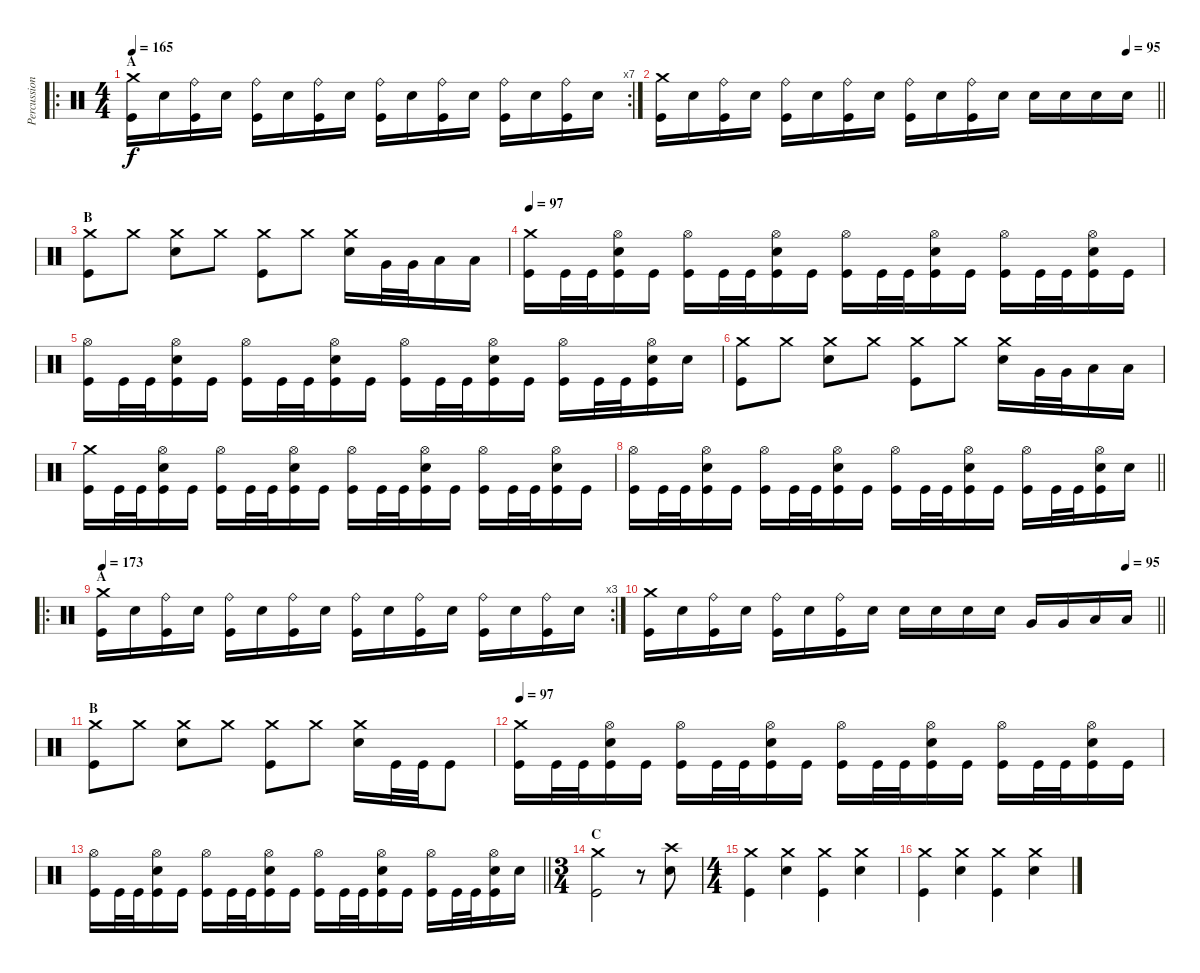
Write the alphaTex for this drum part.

\track ("Percussion" "Percussion") {instrument percussion}
\staff {score}
\articulation defaults
\ro
\rc 7
\ts (4 4)
\section ("" "A")
\tempo 165
\clef neutral
\ks c
("Kick (hit)" "Crash medium (hit)").16{dy f} "Snare (hit) 2".16 ("Kick (hit)" "Ride (bell)").16 "Snare (hit) 2".16 ("Kick (hit)" "Ride (bell)").16 "Snare (hit) 2".16 ("Kick (hit)" "Ride (bell)").16 "Snare (hit) 2".16 ("Kick (hit)" "Ride (bell)").16 "Snare (hit) 2".16 ("Kick (hit)" "Ride (bell)").16 "Snare (hit) 2".16 ("Kick (hit)" "Ride (bell)").16 "Snare (hit) 2".16 ("Kick (hit)" "Ride (bell)").16 "Snare (hit) 2".16 |
\tempo (95 0.9375)
\barLineRight lightlight
("Kick (hit)" "Crash medium (hit)").16 "Snare (hit) 2".16 ("Kick (hit)" "Ride (bell)").16 "Snare (hit) 2".16 ("Kick (hit)" "Ride (bell)").16 "Snare (hit) 2".16 ("Kick (hit)" "Ride (bell)").16 "Snare (hit) 2".16 ("Kick (hit)" "Ride (bell)").16 "Snare (hit) 2".16 ("Kick (hit)" "Ride (bell)").16 "Snare (hit) 2".16 "Snare (hit) 2".16 "Snare (hit) 2".16 "Snare (hit) 2".16 "Snare (hit) 2".16 |
\section ("" "B")
("Kick (hit)" "Crash medium (hit)").8 "Crash medium (hit)".8 ("Snare (hit) 2" "Crash medium (hit)").8 "Crash medium (hit)".8 ("Kick (hit)" "Crash medium (hit)").8 "Crash medium (hit)".8 ("Snare (hit) 2" "Crash medium (hit)").16 "Very Low Tom (hit)".32 "Very Low Tom (hit)".32 "Low Floor Tom (hit)".16 "Low Floor Tom (hit)".16 |
\tempo 97
("Kick (hit)" "Crash medium (hit)").16 "Kick (hit)".32 "Kick (hit)".32 ("Kick (hit)" "Snare (hit) 2" "Hi-Hat (open)").16 "Kick (hit)".16 ("Kick (hit)" "Hi-Hat (open)").16 "Kick (hit)".32 "Kick (hit)".32 ("Kick (hit)" "Snare (hit) 2" "Hi-Hat (open)").16 "Kick (hit)".16 ("Kick (hit)" "Hi-Hat (open)").16 "Kick (hit)".32 "Kick (hit)".32 ("Kick (hit)" "Snare (hit) 2" "Hi-Hat (open)").16 "Kick (hit)".16 ("Kick (hit)" "Hi-Hat (open)").16 "Kick (hit)".32 "Kick (hit)".32 ("Kick (hit)" "Snare (hit) 2" "Hi-Hat (open)").16 "Kick (hit)".16 |
("Kick (hit)" "Hi-Hat (open)").16 "Kick (hit)".32 "Kick (hit)".32 ("Kick (hit)" "Snare (hit) 2" "Hi-Hat (open)").16 "Kick (hit)".16 ("Kick (hit)" "Hi-Hat (open)").16 "Kick (hit)".32 "Kick (hit)".32 ("Kick (hit)" "Snare (hit) 2" "Hi-Hat (open)").16 "Kick (hit)".16 ("Kick (hit)" "Hi-Hat (open)").16 "Kick (hit)".32 "Kick (hit)".32 ("Kick (hit)" "Snare (hit) 2" "Hi-Hat (open)").16 "Kick (hit)".16 ("Kick (hit)" "Hi-Hat (open)").16 "Kick (hit)".32 "Kick (hit)".32 ("Kick (hit)" "Snare (hit) 2" "Hi-Hat (open)").16 "Snare (hit) 2".16 |
("Kick (hit)" "Crash medium (hit)").8 "Crash medium (hit)".8 ("Snare (hit) 2" "Crash medium (hit)").8 "Crash medium (hit)".8 ("Kick (hit)" "Crash medium (hit)").8 "Crash medium (hit)".8 ("Snare (hit) 2" "Crash medium (hit)").16 "Very Low Tom (hit)".32 "Very Low Tom (hit)".32 "Low Floor Tom (hit)".16 "Low Floor Tom (hit)".16 |
("Kick (hit)" "Crash medium (hit)").16 "Kick (hit)".32 "Kick (hit)".32 ("Kick (hit)" "Snare (hit) 2" "Hi-Hat (open)").16 "Kick (hit)".16 ("Kick (hit)" "Hi-Hat (open)").16 "Kick (hit)".32 "Kick (hit)".32 ("Kick (hit)" "Snare (hit) 2" "Hi-Hat (open)").16 "Kick (hit)".16 ("Kick (hit)" "Hi-Hat (open)").16 "Kick (hit)".32 "Kick (hit)".32 ("Kick (hit)" "Snare (hit) 2" "Hi-Hat (open)").16 "Kick (hit)".16 ("Kick (hit)" "Hi-Hat (open)").16 "Kick (hit)".32 "Kick (hit)".32 ("Kick (hit)" "Snare (hit) 2" "Hi-Hat (open)").16 "Kick (hit)".16 |
\barLineRight lightlight
("Kick (hit)" "Hi-Hat (open)").16 "Kick (hit)".32 "Kick (hit)".32 ("Kick (hit)" "Snare (hit) 2" "Hi-Hat (open)").16 "Kick (hit)".16 ("Kick (hit)" "Hi-Hat (open)").16 "Kick (hit)".32 "Kick (hit)".32 ("Kick (hit)" "Snare (hit) 2" "Hi-Hat (open)").16 "Kick (hit)".16 ("Kick (hit)" "Hi-Hat (open)").16 "Kick (hit)".32 "Kick (hit)".32 ("Kick (hit)" "Snare (hit) 2" "Hi-Hat (open)").16 "Kick (hit)".16 ("Kick (hit)" "Hi-Hat (open)").16 "Kick (hit)".32 "Kick (hit)".32 ("Kick (hit)" "Snare (hit) 2" "Hi-Hat (open)").16 "Snare (hit) 2".16 |
\ro
\rc 3
\section ("" "A")
\tempo 173
("Kick (hit)" "Crash medium (hit)").16 "Snare (hit) 2".16 ("Kick (hit)" "Ride (bell)").16 "Snare (hit) 2".16 ("Kick (hit)" "Ride (bell)").16 "Snare (hit) 2".16 ("Kick (hit)" "Ride (bell)").16 "Snare (hit) 2".16 ("Kick (hit)" "Ride (bell)").16 "Snare (hit) 2".16 ("Kick (hit)" "Ride (bell)").16 "Snare (hit) 2".16 ("Kick (hit)" "Ride (bell)").16 "Snare (hit) 2".16 ("Kick (hit)" "Ride (bell)").16 "Snare (hit) 2".16 |
\tempo (95 0.9375)
\barLineRight lightlight
("Kick (hit)" "Crash medium (hit)").16 "Snare (hit) 2".16 ("Kick (hit)" "Ride (bell)").16 "Snare (hit) 2".16 ("Kick (hit)" "Ride (bell)").16 "Snare (hit) 2".16 ("Kick (hit)" "Ride (bell)").16 "Snare (hit) 2".16 "Snare (hit) 2".16 "Snare (hit) 2".16 "Snare (hit) 2".16 "Snare (hit) 2".16 "Very Low Tom (hit)".16 "Very Low Tom (hit)".16 "Low Floor Tom (hit)".16 "Low Floor Tom (hit)".16 |
\section ("" "B")
("Kick (hit)" "Crash medium (hit)").8 "Crash medium (hit)".8 ("Snare (hit) 2" "Crash medium (hit)").8 "Crash medium (hit)".8 ("Kick (hit)" "Crash medium (hit)").8 "Crash medium (hit)".8 ("Snare (hit) 2" "Crash medium (hit)").16 "Kick (hit)".32 "Kick (hit)".32 "Kick (hit)".8 |
\tempo 97
("Kick (hit)" "Crash medium (hit)").16 "Kick (hit)".32 "Kick (hit)".32 ("Kick (hit)" "Snare (hit) 2" "Hi-Hat (open)").16 "Kick (hit)".16 ("Kick (hit)" "Hi-Hat (open)").16 "Kick (hit)".32 "Kick (hit)".32 ("Kick (hit)" "Snare (hit) 2" "Hi-Hat (open)").16 "Kick (hit)".16 ("Kick (hit)" "Hi-Hat (open)").16 "Kick (hit)".32 "Kick (hit)".32 ("Kick (hit)" "Snare (hit) 2" "Hi-Hat (open)").16 "Kick (hit)".16 ("Kick (hit)" "Hi-Hat (open)").16 "Kick (hit)".32 "Kick (hit)".32 ("Kick (hit)" "Snare (hit) 2" "Hi-Hat (open)").16 "Kick (hit)".16 |
\barLineRight lightlight
("Kick (hit)" "Hi-Hat (open)").16 "Kick (hit)".32 "Kick (hit)".32 ("Kick (hit)" "Snare (hit) 2" "Hi-Hat (open)").16 "Kick (hit)".16 ("Kick (hit)" "Hi-Hat (open)").16 "Kick (hit)".32 "Kick (hit)".32 ("Kick (hit)" "Snare (hit) 2" "Hi-Hat (open)").16 "Kick (hit)".16 ("Kick (hit)" "Hi-Hat (open)").16 "Kick (hit)".32 "Kick (hit)".32 ("Kick (hit)" "Snare (hit) 2" "Hi-Hat (open)").16 "Kick (hit)".16 ("Kick (hit)" "Hi-Hat (open)").16 "Kick (hit)".32 "Kick (hit)".32 ("Kick (hit)" "Snare (hit) 2" "Hi-Hat (open)").16 "Snare (hit) 2".16 |
\ts (3 4)
\section ("" "C")
("Kick (hit)" "Crash medium (hit)").2 r.8 ("Snare (hit) 2" "Crash high (hit)").8 |
\ts (4 4)
("Kick (hit)" "Crash medium (hit)").4 ("Snare (hit) 2" "Crash medium (hit)").4 ("Kick (hit)" "Crash medium (hit)").4 ("Snare (hit) 2" "Crash medium (hit)").4 |
("Kick (hit)" "Crash medium (hit)").4 ("Snare (hit) 2" "Crash medium (hit)").4 ("Kick (hit)" "Crash medium (hit)").4 ("Snare (hit) 2" "Crash medium (hit)").4
